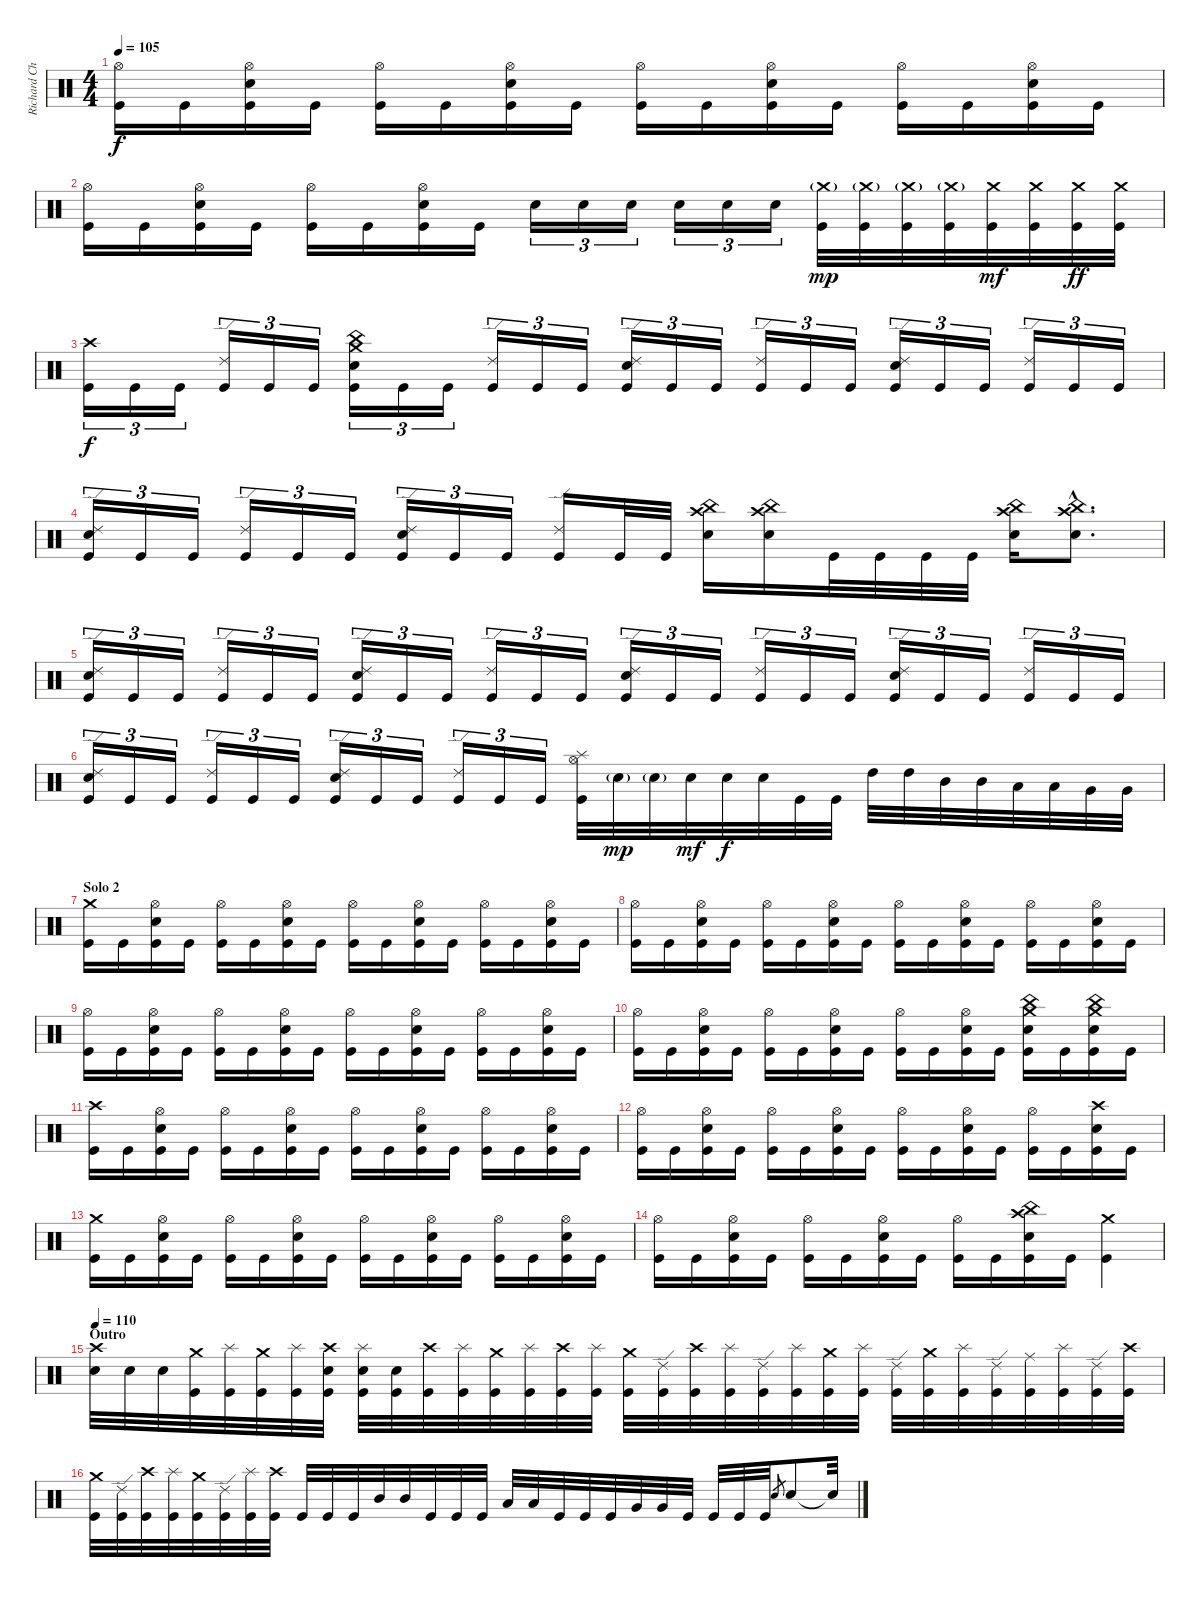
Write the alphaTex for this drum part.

\track ("Richard Christy" "Richard Ch") {instrument percussion}
\staff {score}
\articulation defaults
\ts (4 4)
\tempo 105
\clef neutral
\ks c
("Hi-Hat (open)" "Kick (hit)").16{dy f} "Kick (hit)".16 ("Hi-Hat (open)" "Electric Snare (hit)" "Kick (hit)").16 "Kick (hit)".16 ("Hi-Hat (open)" "Kick (hit)").16 "Kick (hit)".16 ("Hi-Hat (open)" "Electric Snare (hit)" "Kick (hit)").16 "Kick (hit)".16 ("Hi-Hat (open)" "Kick (hit)").16 "Kick (hit)".16 ("Hi-Hat (open)" "Electric Snare (hit)" "Kick (hit)").16 "Kick (hit)".16 ("Hi-Hat (open)" "Kick (hit)").16 "Kick (hit)".16 ("Hi-Hat (open)" "Electric Snare (hit)" "Kick (hit)").16 "Kick (hit)".16 |
("Hi-Hat (open)" "Kick (hit)").16 "Kick (hit)".16 ("Hi-Hat (open)" "Electric Snare (hit)" "Kick (hit)").16 "Kick (hit)".16 ("Hi-Hat (open)" "Kick (hit)").16 "Kick (hit)".16 ("Hi-Hat (open)" "Electric Snare (hit)" "Kick (hit)").16 "Kick (hit)".16 "Electric Snare (hit)".16{tu (3 2)} "Electric Snare (hit)".16{tu (3 2)} "Electric Snare (hit)".16{tu (3 2)} "Electric Snare (hit)".16{tu (3 2)} "Electric Snare (hit)".16{tu (3 2)} "Electric Snare (hit)".16{tu (3 2)} ("Crash medium (hit)"{g} "Kick (hit)").32{dy mp} ("Crash medium (hit)"{g} "Kick (hit)").32 ("Crash medium (hit)"{g} "Kick (hit)").32 ("Crash medium (hit)"{g} "Kick (hit)").32 ("Crash medium (hit)" "Kick (hit)").32{dy mf} ("Crash medium (hit)" "Kick (hit)").32 ("Crash medium (hit)" "Kick (hit)").32{dy ff} ("Crash medium (hit)" "Kick (hit)").32 |
("Crash high (hit)" "Kick (hit)").16{tu (3 2) dy f} "Kick (hit)".16{tu (3 2)} "Kick (hit)".16{tu (3 2)} ("Ride (edge) 2" "Kick (hit)").16{tu (3 2)} "Kick (hit)".16{tu (3 2)} "Kick (hit)".16{tu (3 2)} ("Crash medium (hit)" "China (hit)" "Electric Snare (hit)" "Kick (hit)").16{tu (3 2)} "Kick (hit)".16{tu (3 2)} "Kick (hit)".16{tu (3 2)} ("Ride (edge) 2" "Kick (hit)").16{tu (3 2)} "Kick (hit)".16{tu (3 2)} "Kick (hit)".16{tu (3 2)} ("Ride (edge) 2" "Electric Snare (hit)" "Kick (hit)").16{tu (3 2)} "Kick (hit)".16{tu (3 2)} "Kick (hit)".16{tu (3 2)} ("Ride (edge) 2" "Kick (hit)").16{tu (3 2)} "Kick (hit)".16{tu (3 2)} "Kick (hit)".16{tu (3 2)} ("Ride (edge) 2" "Electric Snare (hit)" "Kick (hit)").16{tu (3 2)} "Kick (hit)".16{tu (3 2)} "Kick (hit)".16{tu (3 2)} ("Ride (edge) 2" "Kick (hit)").16{tu (3 2)} "Kick (hit)".16{tu (3 2)} "Kick (hit)".16{tu (3 2)} |
("Ride (edge) 2" "Electric Snare (hit)" "Kick (hit)").16{tu (3 2)} "Kick (hit)".16{tu (3 2)} "Kick (hit)".16{tu (3 2)} ("Ride (edge) 2" "Kick (hit)").16{tu (3 2)} "Kick (hit)".16{tu (3 2)} "Kick (hit)".16{tu (3 2)} ("Ride (edge) 2" "Electric Snare (hit)" "Kick (hit)").16{tu (3 2)} "Kick (hit)".16{tu (3 2)} "Kick (hit)".16{tu (3 2)} ("Ride (edge) 2" "Kick (hit)").16 "Kick (hit)".32 "Kick (hit)".32 ("Crash high (hit)" "China (hit)" "Electric Snare (hit)").16 ("Crash high (hit)" "China (hit)" "Electric Snare (hit)").16 "Kick (hit)".32 "Kick (hit)".32 "Kick (hit)".32 "Kick (hit)".32 ("Crash high (hit)" "China (hit)" "Electric Snare (hit)").16 ("Crash high (hit)"{hac} "China (hit)"{hac} "Electric Snare (hit)"{hac}).8{d} |
("Ride (edge) 2" "Electric Snare (hit)" "Kick (hit)").16{tu (3 2)} "Kick (hit)".16{tu (3 2)} "Kick (hit)".16{tu (3 2)} ("Ride (edge) 2" "Kick (hit)").16{tu (3 2)} "Kick (hit)".16{tu (3 2)} "Kick (hit)".16{tu (3 2)} ("Ride (edge) 2" "Electric Snare (hit)" "Kick (hit)").16{tu (3 2)} "Kick (hit)".16{tu (3 2)} "Kick (hit)".16{tu (3 2)} ("Ride (edge) 2" "Kick (hit)").16{tu (3 2)} "Kick (hit)".16{tu (3 2)} "Kick (hit)".16{tu (3 2)} ("Ride (edge) 2" "Electric Snare (hit)" "Kick (hit)").16{tu (3 2)} "Kick (hit)".16{tu (3 2)} "Kick (hit)".16{tu (3 2)} ("Ride (edge) 2" "Kick (hit)").16{tu (3 2)} "Kick (hit)".16{tu (3 2)} "Kick (hit)".16{tu (3 2)} ("Ride (edge) 2" "Electric Snare (hit)" "Kick (hit)").16{tu (3 2)} "Kick (hit)".16{tu (3 2)} "Kick (hit)".16{tu (3 2)} ("Ride (edge) 2" "Kick (hit)").16{tu (3 2)} "Kick (hit)".16{tu (3 2)} "Kick (hit)".16{tu (3 2)} |
("Ride (edge) 2" "Electric Snare (hit)" "Kick (hit)").16{tu (3 2)} "Kick (hit)".16{tu (3 2)} "Kick (hit)".16{tu (3 2)} ("Ride (edge) 2" "Kick (hit)").16{tu (3 2)} "Kick (hit)".16{tu (3 2)} "Kick (hit)".16{tu (3 2)} ("Ride (edge) 2" "Electric Snare (hit)" "Kick (hit)").16{tu (3 2)} "Kick (hit)".16{tu (3 2)} "Kick (hit)".16{tu (3 2)} ("Ride (edge) 2" "Kick (hit)").16{tu (3 2)} "Kick (hit)".16{tu (3 2)} "Kick (hit)".16{tu (3 2)} ("Hi-Hat (open)" "Splash (hit)" "Kick (hit)").32 "Electric Snare (hit)"{g}.32{dy mp} "Electric Snare (hit)"{g}.32 "Electric Snare (hit)".32{dy mf} "Electric Snare (hit)".32{dy f} "Electric Snare (hit)".32 "Kick (hit)".32 "Kick (hit)".32 "High Tom (hit)".32 "High Tom (hit)".32 "Mid Tom (hit)".32 "Mid Tom (hit)".32 "Low Tom (hit)".32 "Low Tom (hit)".32 "Very Low Tom (hit)".32 "Very Low Tom (hit)".32 |
\section ("" "Solo 2")
("Crash medium (hit)" "Kick (hit)").16 "Kick (hit)".16 ("Hi-Hat (open)" "Electric Snare (hit)" "Kick (hit)").16 "Kick (hit)".16 ("Hi-Hat (open)" "Kick (hit)").16 "Kick (hit)".16 ("Hi-Hat (open)" "Electric Snare (hit)" "Kick (hit)").16 "Kick (hit)".16 ("Hi-Hat (open)" "Kick (hit)").16 "Kick (hit)".16 ("Hi-Hat (open)" "Electric Snare (hit)" "Kick (hit)").16 "Kick (hit)".16 ("Hi-Hat (open)" "Kick (hit)").16 "Kick (hit)".16 ("Hi-Hat (open)" "Electric Snare (hit)" "Kick (hit)").16 "Kick (hit)".16 |
("Hi-Hat (open)" "Kick (hit)").16 "Kick (hit)".16 ("Hi-Hat (open)" "Electric Snare (hit)" "Kick (hit)").16 "Kick (hit)".16 ("Hi-Hat (open)" "Kick (hit)").16 "Kick (hit)".16 ("Hi-Hat (open)" "Electric Snare (hit)" "Kick (hit)").16 "Kick (hit)".16 ("Hi-Hat (open)" "Kick (hit)").16 "Kick (hit)".16 ("Hi-Hat (open)" "Electric Snare (hit)" "Kick (hit)").16 "Kick (hit)".16 ("Hi-Hat (open)" "Kick (hit)").16 "Kick (hit)".16 ("Hi-Hat (open)" "Electric Snare (hit)" "Kick (hit)").16 "Kick (hit)".16 |
("Hi-Hat (open)" "Kick (hit)").16 "Kick (hit)".16 ("Hi-Hat (open)" "Electric Snare (hit)" "Kick (hit)").16 "Kick (hit)".16 ("Hi-Hat (open)" "Kick (hit)").16 "Kick (hit)".16 ("Hi-Hat (open)" "Electric Snare (hit)" "Kick (hit)").16 "Kick (hit)".16 ("Hi-Hat (open)" "Kick (hit)").16 "Kick (hit)".16 ("Hi-Hat (open)" "Electric Snare (hit)" "Kick (hit)").16 "Kick (hit)".16 ("Hi-Hat (open)" "Kick (hit)").16 "Kick (hit)".16 ("Hi-Hat (open)" "Electric Snare (hit)" "Kick (hit)").16 "Kick (hit)".16 |
("Hi-Hat (open)" "Kick (hit)").16 "Kick (hit)".16 ("Hi-Hat (open)" "Electric Snare (hit)" "Kick (hit)").16 "Kick (hit)".16 ("Hi-Hat (open)" "Kick (hit)").16 "Kick (hit)".16 ("Hi-Hat (open)" "Electric Snare (hit)" "Kick (hit)").16 "Kick (hit)".16 ("Hi-Hat (open)" "Kick (hit)").16 "Kick (hit)".16 ("Hi-Hat (open)" "Electric Snare (hit)" "Kick (hit)").16 "Kick (hit)".16 ("Crash medium (hit)" "China (hit)" "Electric Snare (hit)" "Kick (hit)").16 "Kick (hit)".16 ("Crash medium (hit)" "China (hit)" "Electric Snare (hit)" "Kick (hit)").16 "Kick (hit)".16 |
("Crash high (hit)" "Kick (hit)").16 "Kick (hit)".16 ("Hi-Hat (open)" "Electric Snare (hit)" "Kick (hit)").16 "Kick (hit)".16 ("Hi-Hat (open)" "Kick (hit)").16 "Kick (hit)".16 ("Hi-Hat (open)" "Electric Snare (hit)" "Kick (hit)").16 "Kick (hit)".16 ("Hi-Hat (open)" "Kick (hit)").16 "Kick (hit)".16 ("Hi-Hat (open)" "Electric Snare (hit)" "Kick (hit)").16 "Kick (hit)".16 ("Hi-Hat (open)" "Kick (hit)").16 "Kick (hit)".16 ("Hi-Hat (open)" "Electric Snare (hit)" "Kick (hit)").16 "Kick (hit)".16 |
("Hi-Hat (open)" "Kick (hit)").16 "Kick (hit)".16 ("Hi-Hat (open)" "Electric Snare (hit)" "Kick (hit)").16 "Kick (hit)".16 ("Hi-Hat (open)" "Kick (hit)").16 "Kick (hit)".16 ("Hi-Hat (open)" "Electric Snare (hit)" "Kick (hit)").16 "Kick (hit)".16 ("Hi-Hat (open)" "Kick (hit)").16 "Kick (hit)".16 ("Hi-Hat (open)" "Electric Snare (hit)" "Kick (hit)").16 "Kick (hit)".16 ("Hi-Hat (open)" "Kick (hit)").16 "Kick (hit)".16 ("Crash high (hit)" "Electric Snare (hit)" "Kick (hit)").16 "Kick (hit)".16 |
("Crash medium (hit)" "Kick (hit)").16 "Kick (hit)".16 ("Hi-Hat (open)" "Electric Snare (hit)" "Kick (hit)").16 "Kick (hit)".16 ("Hi-Hat (open)" "Kick (hit)").16 "Kick (hit)".16 ("Hi-Hat (open)" "Electric Snare (hit)" "Kick (hit)").16 "Kick (hit)".16 ("Hi-Hat (open)" "Kick (hit)").16 "Kick (hit)".16 ("Hi-Hat (open)" "Electric Snare (hit)" "Kick (hit)").16 "Kick (hit)".16 ("Hi-Hat (open)" "Kick (hit)").16 "Kick (hit)".16 ("Hi-Hat (open)" "Electric Snare (hit)" "Kick (hit)").16 "Kick (hit)".16 |
("Hi-Hat (open)" "Kick (hit)").16 "Kick (hit)".16 ("Hi-Hat (open)" "Electric Snare (hit)" "Kick (hit)").16 "Kick (hit)".16 ("Hi-Hat (open)" "Kick (hit)").16 "Kick (hit)".16 ("Hi-Hat (open)" "Electric Snare (hit)" "Kick (hit)").16 "Kick (hit)".16 ("Hi-Hat (open)" "Kick (hit)").16 "Kick (hit)".16 ("Crash high (hit)" "China (hit)" "Electric Snare (hit)" "Kick (hit)").16 "Kick (hit)".16 ("Crash medium (hit)" "Kick (hit)").4 |
\section ("" "Outro")
\tempo 110
("Crash high (hit)" "Electric Snare (hit)").32 "Electric Snare (hit)".32 "Electric Snare (hit)".32 ("Crash medium (hit)" "Kick (hit)").32 ("Splash (hit)" "Kick (hit)").32 ("Crash medium (hit)" "Kick (hit)").32 ("Splash (hit)" "Kick (hit)").32 ("Crash high (hit)" "Electric Snare (hit)" "Kick (hit)").32 ("Splash (hit)" "Electric Snare (hit)" "Kick (hit)").32 ("Electric Snare (hit)" "Kick (hit)").32 ("Crash high (hit)" "Kick (hit)").32 ("Splash (hit)" "Kick (hit)").32 ("Crash medium (hit)" "Kick (hit)").32 ("Splash (hit)" "Kick (hit)").32 ("Crash high (hit)" "Kick (hit)").32 ("Splash (hit)" "Kick (hit)").32 ("Crash medium (hit)" "Kick (hit)").32 ("Ride (edge) 2" "Kick (hit)").32 ("Crash high (hit)" "Kick (hit)").32 ("Splash (hit)" "Kick (hit)").32 ("Ride (edge) 2" "Kick (hit)").32 ("Splash (hit)" "Kick (hit)").32 ("Crash medium (hit)" "Kick (hit)").32 ("Splash (hit)" "Kick (hit)").32 ("Ride (edge) 2" "Kick (hit)").32 ("Crash medium (hit)" "Kick (hit)").32 ("Splash (hit)" "Kick (hit)").32 ("Ride (edge) 2" "Kick (hit)").32 ("Ride (middle)" "Kick (hit)").32 ("Splash (hit)" "Kick (hit)").32 ("Ride (edge) 2" "Kick (hit)").32 ("Crash high (hit)" "Kick (hit)").32 |
("Crash medium (hit)" "Kick (hit)").32 ("Ride (edge) 2" "Kick (hit)").32 ("Crash high (hit)" "Kick (hit)").32 ("Splash (hit)" "Kick (hit)").32 ("Crash medium (hit)" "Kick (hit)").32 ("Ride (edge) 2" "Kick (hit)").32 ("Splash (hit)" "Kick (hit)").32 ("Crash high (hit)" "Kick (hit)").32 "Kick (hit)".32 "Kick (hit)".32 "Kick (hit)".32 "Mid Tom (hit)".32 "Mid Tom (hit)".32 "Kick (hit)".32 "Kick (hit)".32 "Kick (hit)".32 "Low Tom (hit)".32 "Low Tom (hit)".32 "Kick (hit)".32 "Kick (hit)".32 "Kick (hit)".32 "Very Low Tom (hit)".32 "Very Low Tom (hit)".32 "Kick (hit)".32 "Kick (hit)".32 "Kick (hit)".32 "Kick (hit)".32 "Electric Snare (hit)".8{gr} "Electric Snare (hit)".8 "Snare (hit)"{t}.32
